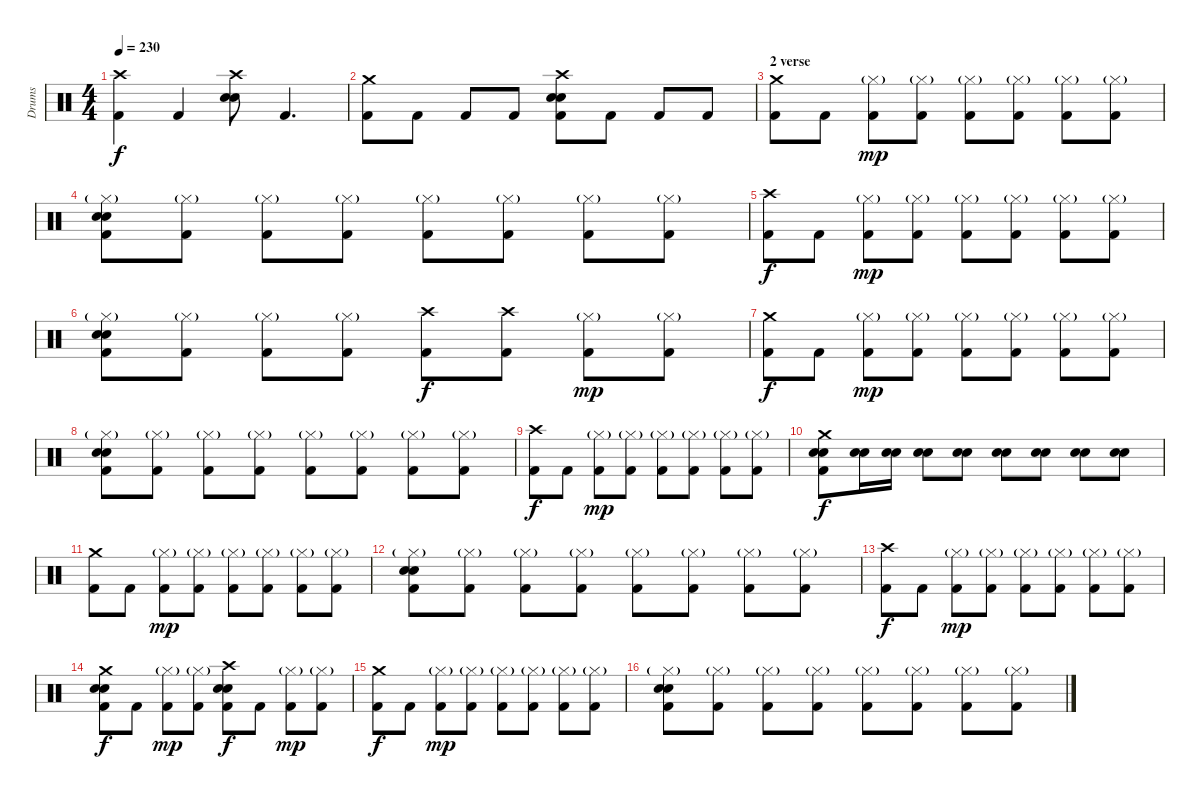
\track ("Drums" "Drums") {instrument percussion}
\staff {score}
\articulation defaults
\ts (4 4)
\tempo 230
\clef neutral
\ks c
("Crash high (hit)" "Kick (hit) 2").4{dy f} "Kick (hit) 2".4 ("Crash high (hit)" "Electric Snare (hit)" "Electric Snare (hit)").8 "Kick (hit) 2".4{d} |
("Crash medium (hit)" "Kick (hit) 2").8 "Kick (hit) 2".8 "Kick (hit) 2".8 "Kick (hit) 2".8 ("Crash high (hit)" "Electric Snare (hit)" "Electric Snare (hit)" "Kick (hit) 2").8 "Kick (hit) 2".8 "Kick (hit) 2".8 "Kick (hit) 2".8 |
\section ("" "2 verse")
("Crash medium (hit)" "Kick (hit) 2").8 "Kick (hit) 2".8 ("Hi-Hat (closed)"{g} "Kick (hit) 2").8{dy mp} ("Hi-Hat (closed)"{g} "Kick (hit) 2").8 ("Hi-Hat (closed)"{g} "Kick (hit) 2").8 ("Hi-Hat (closed)"{g} "Kick (hit) 2").8 ("Hi-Hat (closed)"{g} "Kick (hit) 2").8 ("Hi-Hat (closed)"{g} "Kick (hit) 2").8 |
("Hi-Hat (closed)"{g} "Electric Snare (hit)" "Electric Snare (hit)" "Kick (hit) 2").8 ("Hi-Hat (closed)"{g} "Kick (hit) 2").8 ("Hi-Hat (closed)"{g} "Kick (hit) 2").8 ("Hi-Hat (closed)"{g} "Kick (hit) 2").8 ("Hi-Hat (closed)"{g} "Kick (hit) 2").8 ("Hi-Hat (closed)"{g} "Kick (hit) 2").8 ("Hi-Hat (closed)"{g} "Kick (hit) 2").8 ("Hi-Hat (closed)"{g} "Kick (hit) 2").8 |
("Crash high (hit)" "Kick (hit) 2").8{dy f} "Kick (hit) 2".8 ("Hi-Hat (closed)"{g} "Kick (hit) 2").8{dy mp} ("Hi-Hat (closed)"{g} "Kick (hit) 2").8 ("Hi-Hat (closed)"{g} "Kick (hit) 2").8 ("Hi-Hat (closed)"{g} "Kick (hit) 2").8 ("Hi-Hat (closed)"{g} "Kick (hit) 2").8 ("Hi-Hat (closed)"{g} "Kick (hit) 2").8 |
("Hi-Hat (closed)"{g} "Electric Snare (hit)" "Electric Snare (hit)" "Kick (hit) 2").8 ("Hi-Hat (closed)"{g} "Kick (hit) 2").8 ("Hi-Hat (closed)"{g} "Kick (hit) 2").8 ("Hi-Hat (closed)"{g} "Kick (hit) 2").8 ("Crash high (hit)" "Kick (hit) 2").8{dy f} ("Crash high (hit)" "Kick (hit) 2").8 ("Hi-Hat (closed)"{g} "Kick (hit) 2").8{dy mp} ("Hi-Hat (closed)"{g} "Kick (hit) 2").8 |
("Crash medium (hit)" "Kick (hit) 2").8{dy f} "Kick (hit) 2".8 ("Hi-Hat (closed)"{g} "Kick (hit) 2").8{dy mp} ("Hi-Hat (closed)"{g} "Kick (hit) 2").8 ("Hi-Hat (closed)"{g} "Kick (hit) 2").8 ("Hi-Hat (closed)"{g} "Kick (hit) 2").8 ("Hi-Hat (closed)"{g} "Kick (hit) 2").8 ("Hi-Hat (closed)"{g} "Kick (hit) 2").8 |
("Hi-Hat (closed)"{g} "Electric Snare (hit)" "Electric Snare (hit)" "Kick (hit) 2").8 ("Hi-Hat (closed)"{g} "Kick (hit) 2").8 ("Hi-Hat (closed)"{g} "Kick (hit) 2").8 ("Hi-Hat (closed)"{g} "Kick (hit) 2").8 ("Hi-Hat (closed)"{g} "Kick (hit) 2").8 ("Hi-Hat (closed)"{g} "Kick (hit) 2").8 ("Hi-Hat (closed)"{g} "Kick (hit) 2").8 ("Hi-Hat (closed)"{g} "Kick (hit) 2").8 |
("Crash high (hit)" "Kick (hit) 2").8{dy f} "Kick (hit) 2".8 ("Hi-Hat (closed)"{g} "Kick (hit) 2").8{dy mp} ("Hi-Hat (closed)"{g} "Kick (hit) 2").8 ("Hi-Hat (closed)"{g} "Kick (hit) 2").8 ("Hi-Hat (closed)"{g} "Kick (hit) 2").8 ("Hi-Hat (closed)"{g} "Kick (hit) 2").8 ("Hi-Hat (closed)"{g} "Kick (hit) 2").8 |
("Crash medium (hit)" "Electric Snare (hit)" "Electric Snare (hit)" "Kick (hit) 2").8{dy f} ("Electric Snare (hit)" "Electric Snare (hit)").16 ("Electric Snare (hit)" "Electric Snare (hit)").16 ("Electric Snare (hit)" "Electric Snare (hit)").8 ("Electric Snare (hit)" "Electric Snare (hit)").8 ("Electric Snare (hit)" "Electric Snare (hit)").8 ("Electric Snare (hit)" "Electric Snare (hit)").8 ("Electric Snare (hit)" "Electric Snare (hit)").8 ("Electric Snare (hit)" "Electric Snare (hit)").8 |
("Crash medium (hit)" "Kick (hit) 2").8 "Kick (hit) 2".8 ("Hi-Hat (closed)"{g} "Kick (hit) 2").8{dy mp} ("Hi-Hat (closed)"{g} "Kick (hit) 2").8 ("Hi-Hat (closed)"{g} "Kick (hit) 2").8 ("Hi-Hat (closed)"{g} "Kick (hit) 2").8 ("Hi-Hat (closed)"{g} "Kick (hit) 2").8 ("Hi-Hat (closed)"{g} "Kick (hit) 2").8 |
("Hi-Hat (closed)"{g} "Electric Snare (hit)" "Electric Snare (hit)" "Kick (hit) 2").8 ("Hi-Hat (closed)"{g} "Kick (hit) 2").8 ("Hi-Hat (closed)"{g} "Kick (hit) 2").8 ("Hi-Hat (closed)"{g} "Kick (hit) 2").8 ("Hi-Hat (closed)"{g} "Kick (hit) 2").8 ("Hi-Hat (closed)"{g} "Kick (hit) 2").8 ("Hi-Hat (closed)"{g} "Kick (hit) 2").8 ("Hi-Hat (closed)"{g} "Kick (hit) 2").8 |
("Crash high (hit)" "Kick (hit) 2").8{dy f} "Kick (hit) 2".8 ("Hi-Hat (closed)"{g} "Kick (hit) 2").8{dy mp} ("Hi-Hat (closed)"{g} "Kick (hit) 2").8 ("Hi-Hat (closed)"{g} "Kick (hit) 2").8 ("Hi-Hat (closed)"{g} "Kick (hit) 2").8 ("Hi-Hat (closed)"{g} "Kick (hit) 2").8 ("Hi-Hat (closed)"{g} "Kick (hit) 2").8 |
("Crash medium (hit)" "Electric Snare (hit)" "Electric Snare (hit)" "Kick (hit) 2").8{dy f} "Kick (hit) 2".8 ("Hi-Hat (closed)"{g} "Kick (hit) 2").8{dy mp} ("Hi-Hat (closed)"{g} "Kick (hit) 2").8 ("Crash high (hit)" "Electric Snare (hit)" "Electric Snare (hit)" "Kick (hit) 2").8{dy f} "Kick (hit) 2".8 ("Hi-Hat (closed)"{g} "Kick (hit) 2").8{dy mp} ("Hi-Hat (closed)"{g} "Kick (hit) 2").8 |
("Crash medium (hit)" "Kick (hit) 2").8{dy f} "Kick (hit) 2".8 ("Hi-Hat (closed)"{g} "Kick (hit) 2").8{dy mp} ("Hi-Hat (closed)"{g} "Kick (hit) 2").8 ("Hi-Hat (closed)"{g} "Kick (hit) 2").8 ("Hi-Hat (closed)"{g} "Kick (hit) 2").8 ("Hi-Hat (closed)"{g} "Kick (hit) 2").8 ("Hi-Hat (closed)"{g} "Kick (hit) 2").8 |
("Hi-Hat (closed)"{g} "Electric Snare (hit)" "Electric Snare (hit)" "Kick (hit) 2").8 ("Hi-Hat (closed)"{g} "Kick (hit) 2").8 ("Hi-Hat (closed)"{g} "Kick (hit) 2").8 ("Hi-Hat (closed)"{g} "Kick (hit) 2").8 ("Hi-Hat (closed)"{g} "Kick (hit) 2").8 ("Hi-Hat (closed)"{g} "Kick (hit) 2").8 ("Hi-Hat (closed)"{g} "Kick (hit) 2").8 ("Hi-Hat (closed)"{g} "Kick (hit) 2").8
